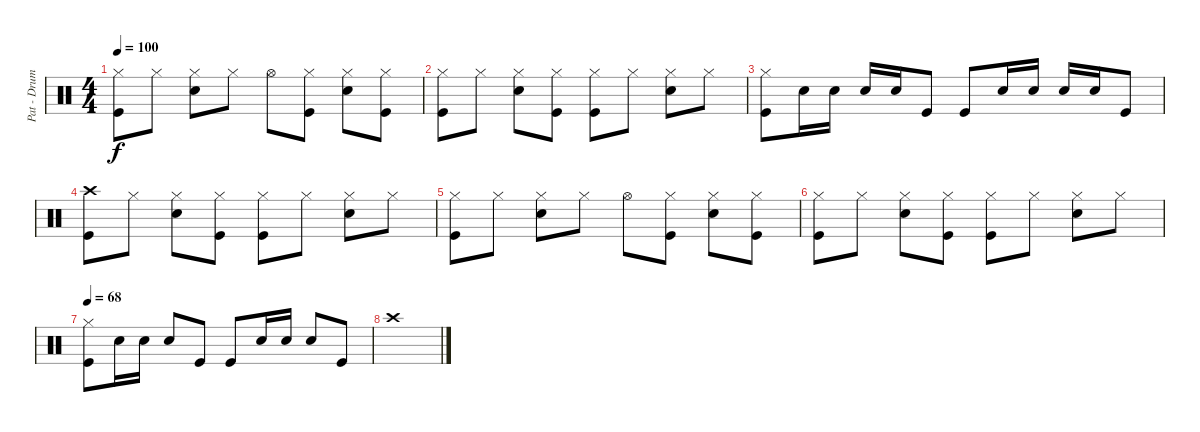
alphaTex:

\track ("Pat - Drums" "Pat - Drum") {instrument percussion}
\staff {score}
\articulation defaults
\ts (4 4)
\tempo 100
\clef neutral
\ks c
("Hi-Hat (closed)" "Kick (hit)").8{dy f} "Hi-Hat (closed)".8 ("Hi-Hat (closed)" "Electric Snare (hit)").8 "Hi-Hat (closed)".8 "Hi-Hat (open)".8 ("Hi-Hat (closed)" "Kick (hit)").8 ("Hi-Hat (closed)" "Electric Snare (hit)").8 ("Hi-Hat (closed)" "Kick (hit)").8 |
("Hi-Hat (closed)" "Kick (hit)").8 "Hi-Hat (closed)".8 ("Hi-Hat (closed)" "Electric Snare (hit)").8 ("Hi-Hat (closed)" "Kick (hit)").8 ("Hi-Hat (closed)" "Kick (hit)").8 "Hi-Hat (closed)".8 ("Hi-Hat (closed)" "Electric Snare (hit)").8 "Hi-Hat (closed)".8 |
("Hi-Hat (closed)" "Kick (hit)").8 "Electric Snare (hit)".16 "Electric Snare (hit)".16 "Electric Snare (hit)".16 "Electric Snare (hit)".16 "Kick (hit)".8 "Kick (hit)".8 "Electric Snare (hit)".16 "Electric Snare (hit)".16 "Electric Snare (hit)".16 "Electric Snare (hit)".16 "Kick (hit)".8 |
("Crash high (hit)" "Kick (hit)").8 "Hi-Hat (closed)".8 ("Hi-Hat (closed)" "Electric Snare (hit)").8 ("Hi-Hat (closed)" "Kick (hit)").8 ("Hi-Hat (closed)" "Kick (hit)").8 "Hi-Hat (closed)".8 ("Hi-Hat (closed)" "Electric Snare (hit)").8 "Hi-Hat (closed)".8 |
("Hi-Hat (closed)" "Kick (hit)").8 "Hi-Hat (closed)".8 ("Hi-Hat (closed)" "Electric Snare (hit)").8 "Hi-Hat (closed)".8 "Hi-Hat (open)".8 ("Hi-Hat (closed)" "Kick (hit)").8 ("Hi-Hat (closed)" "Electric Snare (hit)").8 ("Hi-Hat (closed)" "Kick (hit)").8 |
("Hi-Hat (closed)" "Kick (hit)").8 "Hi-Hat (closed)".8 ("Hi-Hat (closed)" "Electric Snare (hit)").8 ("Hi-Hat (closed)" "Kick (hit)").8 ("Hi-Hat (closed)" "Kick (hit)").8 "Hi-Hat (closed)".8 ("Hi-Hat (closed)" "Electric Snare (hit)").8 "Hi-Hat (closed)".8 |
\tempo 68
("Hi-Hat (closed)" "Kick (hit)").8 "Electric Snare (hit)".16 "Electric Snare (hit)".16 "Electric Snare (hit)".8 "Kick (hit)".8 "Kick (hit)".8 "Electric Snare (hit)".16 "Electric Snare (hit)".16 "Electric Snare (hit)".8 "Kick (hit)".8 |
"Crash high (hit)".1
